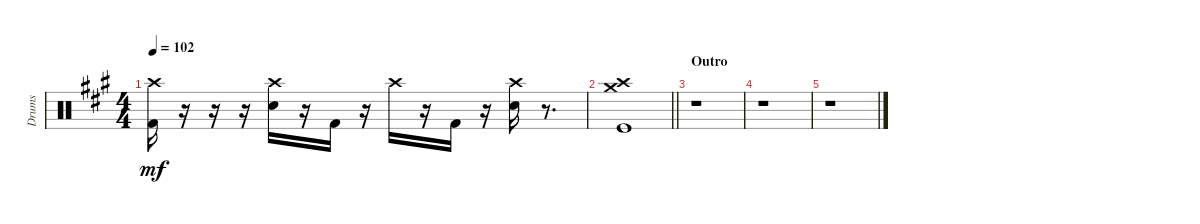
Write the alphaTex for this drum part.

\track ("Drums" "Drums") {instrument percussion}
\staff {score}
\articulation defaults
\ts (4 4)
\tempo 102
\clef neutral
\ks f#minor
("Crash high (hit)" "Kick (hit) 2").16{dy mf} r.16 r.16 r.16 ("Crash high (hit)" "Electric Snare (hit)").16 r.16 "Kick (hit) 2".16 r.16 "Crash high (hit)".16 r.16 "Kick (hit) 2".16 r.16 ("Crash high (hit)" "Electric Snare (hit)").16 r.8{d} |
\barLineRight lightlight
("Crash medium (hit)" "Crash high (hit)" "Kick (hit)").1 |
\section ("" "Outro")
r.1 |
r.1 |
r.1
